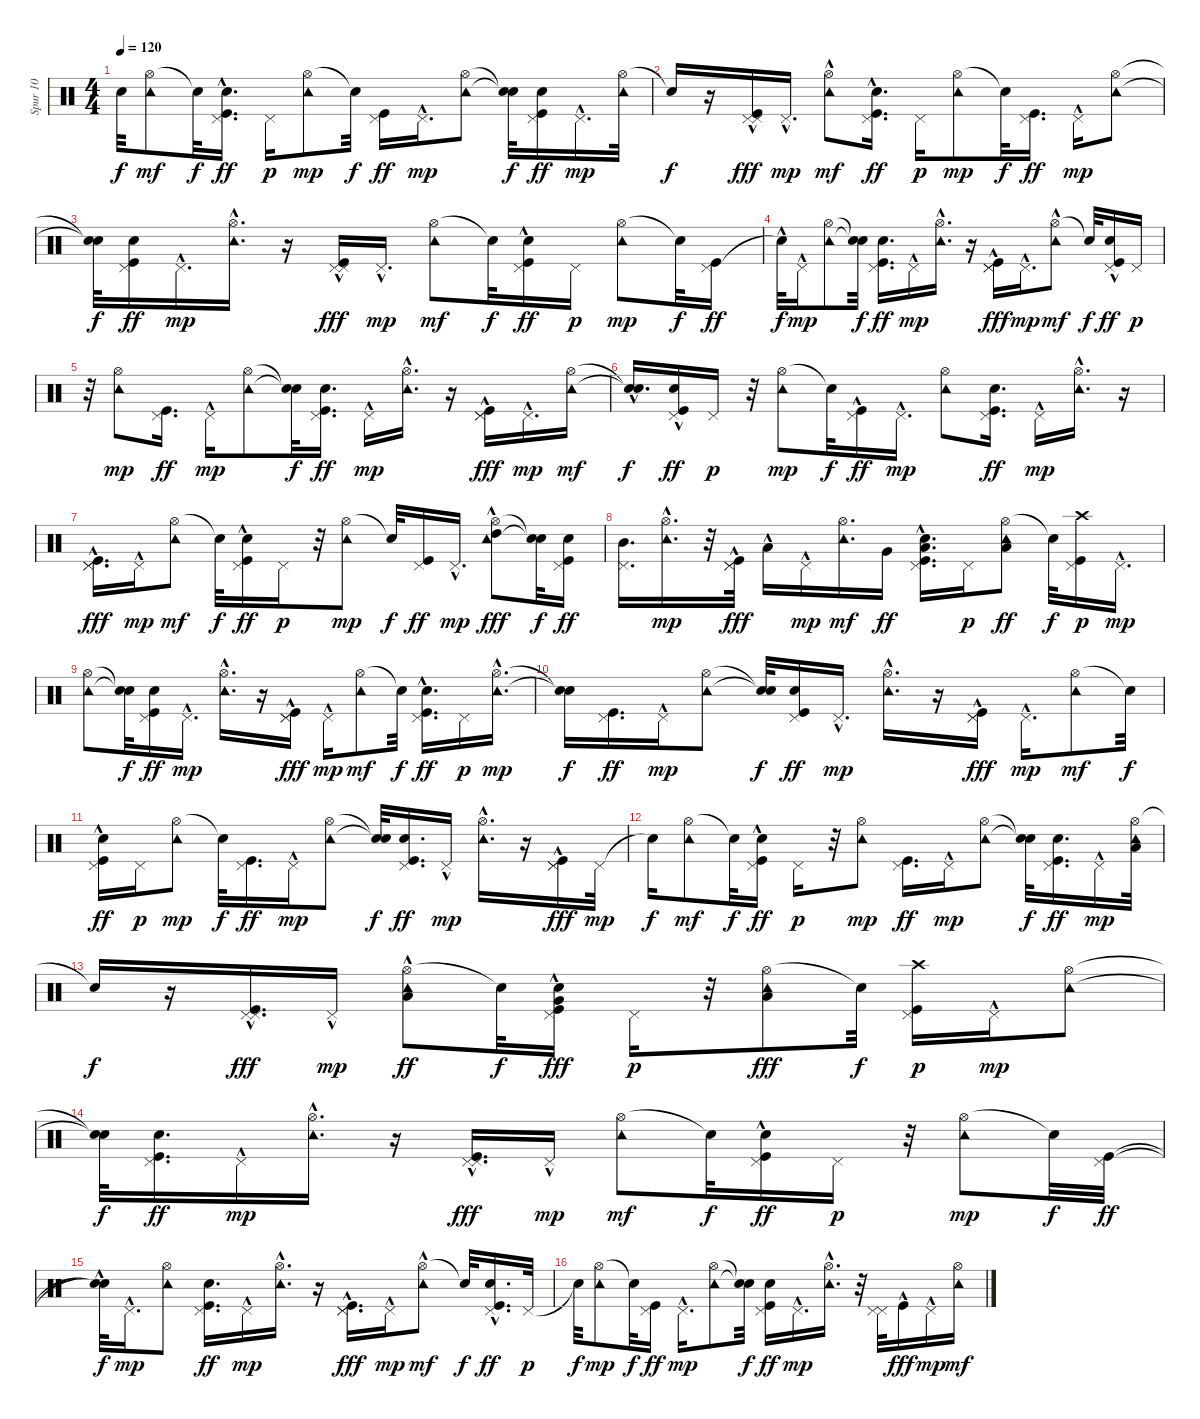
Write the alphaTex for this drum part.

\track ("Spur 10" "Spur 10") {instrument percussion}
\staff {score}
\articulation defaults
\ts (4 4)
\tempo 120
\clef neutral
\ks c "Snare (hit)"{t}.32{dy f}
("Hi-Hat (open)" "Tambourine (hit)").8{dy mf} "Snare (hit)"{t}.32{dy f} ("Pedal Hi-Hat (hit)" "Kick (hit)"{hac} "Snare (hit) 2"{hac}).16{d dy ff} "Pedal Hi-Hat (hit)".16{dy p} ("Hi-Hat (open)" "Tambourine (hit)").8{dy mp} "Snare (hit)"{t}.32{dy f} ("Pedal Hi-Hat (hit)" "Kick (hit)").16{dy ff} "Pedal Hi-Hat (hit)"{hac}.16{d dy mp} ("Hi-Hat (open)" "Tambourine (hit)").8 ("Snare (hit)"{t} "Snare (hit)"{t}).32{dy f} ("Pedal Hi-Hat (hit)" "Kick (hit)" "Snare (hit) 2").16{dy ff} "Pedal Hi-Hat (hit)"{hac}.16{d dy mp} ("Hi-Hat (open)" "Tambourine (hit)").32 |
"Snare (hit)"{t}.16{dy f} r.16 ("Pedal Hi-Hat (hit)" "Pedal Hi-Hat (hit)" "Kick (hit)"{hac}).16{dy fff} "Pedal Hi-Hat (hit)"{hac}.16{d dy mp} ("Hi-Hat (open)" "Tambourine (hit)"{hac}).8{dy mf} ("Pedal Hi-Hat (hit)" "Kick (hit)" "Snare (hit) 2"{hac}).16{d dy ff} "Pedal Hi-Hat (hit)".16{dy p} ("Hi-Hat (open)" "Tambourine (hit)").8{dy mp} "Snare (hit)"{t}.32{dy f} ("Pedal Hi-Hat (hit)" "Kick (hit)").16{d dy ff} "Pedal Hi-Hat (hit)"{hac}.16{dy mp} ("Hi-Hat (open)" "Tambourine (hit)").8 |
("Snare (hit)"{t} "Snare (hit)"{t}).32{dy f} ("Pedal Hi-Hat (hit)" "Kick (hit)" "Snare (hit) 2").16{dy ff} "Pedal Hi-Hat (hit)"{hac}.16{d dy mp} ("Hi-Hat (open)" "Tambourine (hit)"{hac}).16{d} r.16 ("Pedal Hi-Hat (hit)" "Pedal Hi-Hat (hit)" "Kick (hit)"{hac}).16{dy fff} "Pedal Hi-Hat (hit)"{hac}.16{d dy mp} ("Hi-Hat (open)" "Tambourine (hit)").8{dy mf} "Snare (hit)"{t}.32{dy f} ("Pedal Hi-Hat (hit)" "Kick (hit)"{hac} "Snare (hit) 2"{hac}).16{dy ff} "Pedal Hi-Hat (hit)".16{dy p} ("Hi-Hat (open)" "Tambourine (hit)").8{dy mp} "Snare (hit)"{t}.32{dy f} ("Pedal Hi-Hat (hit)" "Kick (hit)").16{dy ff} |
"Snare (hit)"{hac t}.32{dy f} "Pedal Hi-Hat (hit)"{hac}.16{dy mp} ("Hi-Hat (open)" "Tambourine (hit)").8 ("Snare (hit)"{t} "Snare (hit)"{t}).32{dy f} ("Pedal Hi-Hat (hit)" "Kick (hit)" "Snare (hit) 2").16{d dy ff} "Pedal Hi-Hat (hit)"{hac}.16{dy mp} ("Hi-Hat (open)" "Tambourine (hit)"{hac}).16{d} r.16 ("Pedal Hi-Hat (hit)" "Pedal Hi-Hat (hit)" "Kick (hit)"{hac}).16{dy fff} "Pedal Hi-Hat (hit)"{hac}.16{d dy mp} ("Hi-Hat (open)" "Tambourine (hit)"{hac}).8{dy mf} "Snare (hit)"{t}.32{dy f} ("Pedal Hi-Hat (hit)" "Kick (hit)"{hac} "Snare (hit) 2"{hac}).16{dy ff} "Pedal Hi-Hat (hit)".16{dy p} |
r.32 ("Hi-Hat (open)" "Tambourine (hit)").8{dy mp} ("Pedal Hi-Hat (hit)" "Kick (hit)").16{d dy ff} "Pedal Hi-Hat (hit)"{hac}.16{dy mp} ("Hi-Hat (open)" "Tambourine (hit)").8 ("Snare (hit)"{t} "Snare (hit)"{t}).32{dy f} ("Pedal Hi-Hat (hit)" "Kick (hit)" "Snare (hit) 2").16{d dy ff} "Pedal Hi-Hat (hit)"{hac}.16{dy mp} ("Hi-Hat (open)" "Tambourine (hit)"{hac}).16{d} r.16 ("Pedal Hi-Hat (hit)" "Pedal Hi-Hat (hit)" "Kick (hit)"{hac}).16{dy fff} "Pedal Hi-Hat (hit)"{hac}.16{d dy mp} ("Hi-Hat (open)" "Tambourine (hit)").16{dy mf} |
("Snare (hit)"{hac t} "Snare (hit)"{t}).16{d dy f} ("Pedal Hi-Hat (hit)" "Kick (hit)"{hac} "Snare (hit) 2"{hac}).16{dy ff} "Pedal Hi-Hat (hit)".16{dy p} r.32 ("Hi-Hat (open)" "Tambourine (hit)").8{dy mp} "Snare (hit)"{t}.32{dy f} ("Pedal Hi-Hat (hit)" "Kick (hit)"{hac}).16{dy ff} "Pedal Hi-Hat (hit)"{hac}.16{d dy mp} ("Hi-Hat (open)" "Tambourine (hit)").8 ("Pedal Hi-Hat (hit)" "Kick (hit)" "Snare (hit) 2").16{d dy ff} "Pedal Hi-Hat (hit)"{hac}.16{dy mp} ("Hi-Hat (open)" "Tambourine (hit)"{hac}).16{d} r.16 |
("Pedal Hi-Hat (hit)" "Pedal Hi-Hat (hit)" "Kick (hit)"{hac}).16{d dy fff} "Pedal Hi-Hat (hit)"{hac}.16{dy mp} ("Hi-Hat (open)" "Tambourine (hit)").8{dy mf} "Snare (hit)"{t}.32{dy f} ("Pedal Hi-Hat (hit)" "Kick (hit)"{hac} "Snare (hit) 2"{hac}).16{dy ff} "Pedal Hi-Hat (hit)".16{dy p} r.32 ("Hi-Hat (open)" "Tambourine (hit)").8{dy mp} "Snare (hit)"{t}.32{dy f} ("Pedal Hi-Hat (hit)" "Kick (hit)").16{dy ff} "Pedal Hi-Hat (hit)"{hac}.16{d dy mp} ("Hi-Hat (open)" "Tambourine (hit)" "High Tom (hit)"{hac}).8{dy fff} ("Snare (hit)"{t} "Snare (hit)"{t}).32{dy f} ("Pedal Hi-Hat (hit)" "Kick (hit)" "Snare (hit) 2").16{dy ff} |
("Pedal Hi-Hat (hit)" "Mid Tom (hit)").16{d} ("Hi-Hat (open)" "Tambourine (hit)"{hac}).16{d dy mp} r.32 ("Pedal Hi-Hat (hit)" "Pedal Hi-Hat (hit)" "Kick (hit)"{hac}).32{dy fff} "Low Tom (hit)"{hac}.16 "Pedal Hi-Hat (hit)"{hac}.16{dy mp} ("Hi-Hat (open)" "Tambourine (hit)").16{d dy mf} "Very Low Tom (hit)".16{dy ff} ("Pedal Hi-Hat (hit)" "Kick (hit)" "Snare (hit) 2"{hac} "Low Floor Tom (hit)").16{d} "Pedal Hi-Hat (hit)".16{dy p} ("Hi-Hat (open)" "Tambourine (hit)" "Low Floor Tom (hit)").8{dy ff} "Snare (hit)"{t}.32{dy f} ("Pedal Hi-Hat (hit)" "Kick (hit)" "Crash high (hit)").16{dy p} "Pedal Hi-Hat (hit)"{hac}.16{d dy mp} |
("Hi-Hat (open)" "Tambourine (hit)").8 ("Snare (hit)"{t} "Snare (hit)"{t}).32{dy f} ("Pedal Hi-Hat (hit)" "Kick (hit)" "Snare (hit) 2").16{dy ff} "Pedal Hi-Hat (hit)"{hac}.16{d dy mp} ("Hi-Hat (open)" "Tambourine (hit)"{hac}).16{d} r.16 ("Pedal Hi-Hat (hit)" "Pedal Hi-Hat (hit)" "Kick (hit)"{hac}).16{dy fff} "Pedal Hi-Hat (hit)"{hac}.16{dy mp} ("Hi-Hat (open)" "Tambourine (hit)").8{dy mf} "Snare (hit)"{t}.32{dy f} ("Pedal Hi-Hat (hit)" "Kick (hit)" "Snare (hit) 2"{hac}).16{d dy ff} "Pedal Hi-Hat (hit)".16{dy p} ("Hi-Hat (open)"{hac} "Tambourine (hit)"{hac}).16{d dy mp} |
("Snare (hit)"{t} "Snare (hit)"{t}).16{dy f} ("Pedal Hi-Hat (hit)" "Kick (hit)").16{d dy ff} "Pedal Hi-Hat (hit)"{hac}.16{dy mp} ("Hi-Hat (open)" "Tambourine (hit)").8 ("Snare (hit)"{t} "Snare (hit)"{t}).32{dy f} ("Pedal Hi-Hat (hit)" "Kick (hit)" "Snare (hit) 2").16{dy ff} "Pedal Hi-Hat (hit)"{hac}.16{d dy mp} ("Hi-Hat (open)" "Tambourine (hit)"{hac}).16{d} r.16 ("Pedal Hi-Hat (hit)" "Pedal Hi-Hat (hit)" "Kick (hit)"{hac}).16{dy fff} "Pedal Hi-Hat (hit)"{hac}.16{d dy mp} ("Hi-Hat (open)" "Tambourine (hit)").8{dy mf} "Snare (hit)"{t}.32{dy f} |
("Pedal Hi-Hat (hit)" "Kick (hit)"{hac} "Snare (hit) 2"{hac}).16{dy ff} "Pedal Hi-Hat (hit)".16{dy p} ("Hi-Hat (open)" "Tambourine (hit)").8{dy mp} "Snare (hit)"{t}.32{dy f} ("Pedal Hi-Hat (hit)" "Kick (hit)").16{d dy ff} "Pedal Hi-Hat (hit)"{hac}.16{dy mp} ("Hi-Hat (open)" "Tambourine (hit)").8 ("Snare (hit)"{t} "Snare (hit)"{t}).32{dy f} ("Pedal Hi-Hat (hit)" "Kick (hit)" "Snare (hit) 2").16{d dy ff} "Pedal Hi-Hat (hit)"{hac}.16{dy mp} ("Hi-Hat (open)" "Tambourine (hit)"{hac}).16{d} r.16 ("Pedal Hi-Hat (hit)" "Pedal Hi-Hat (hit)" "Kick (hit)"{hac}).16{dy fff} "Pedal Hi-Hat (hit)".32{dy mp} |
"Snare (hit)"{t}.16{dy f} ("Hi-Hat (open)" "Tambourine (hit)").8{dy mf} "Snare (hit)"{t}.32{dy f} ("Pedal Hi-Hat (hit)" "Kick (hit)"{hac} "Snare (hit) 2"{hac}).16{dy ff} "Pedal Hi-Hat (hit)".16{dy p} r.32 ("Hi-Hat (open)" "Tambourine (hit)").8{dy mp} ("Pedal Hi-Hat (hit)" "Kick (hit)").16{d dy ff} "Pedal Hi-Hat (hit)"{hac}.16{dy mp} ("Hi-Hat (open)" "Tambourine (hit)").8 ("Snare (hit)"{t} "Snare (hit)"{t}).32{dy f} ("Pedal Hi-Hat (hit)" "Kick (hit)" "Snare (hit) 2").16{d dy ff} "Pedal Hi-Hat (hit)"{hac}.16{dy mp} ("Hi-Hat (open)" "Tambourine (hit)" "Low Tom (hit)").32 |
"Snare (hit)"{t}.16{dy f} r.16 ("Pedal Hi-Hat (hit)" "Pedal Hi-Hat (hit)" "Kick (hit)"{hac}).16{d dy fff} "Pedal Hi-Hat (hit)"{hac}.16{dy mp} ("Hi-Hat (open)" "Tambourine (hit)"{hac} "Low Tom (hit)").8{dy ff} "Snare (hit)"{t}.32{dy f} ("Pedal Hi-Hat (hit)" "Kick (hit)"{hac} "Snare (hit) 2"{hac} "Very Low Tom (hit)").16{dy fff} "Pedal Hi-Hat (hit)".16{dy p} r.32 ("Hi-Hat (open)" "Tambourine (hit)" "Low Floor Tom (hit)").8{dy fff} "Snare (hit)"{t}.32{dy f} ("Pedal Hi-Hat (hit)" "Kick (hit)" "Crash high (hit)").16{dy p} "Pedal Hi-Hat (hit)"{hac}.16{dy mp} ("Hi-Hat (open)" "Tambourine (hit)").8 |
("Snare (hit)"{t} "Snare (hit)"{t}).32{dy f} ("Pedal Hi-Hat (hit)" "Kick (hit)" "Snare (hit) 2").16{d dy ff} "Pedal Hi-Hat (hit)"{hac}.16{dy mp} ("Hi-Hat (open)" "Tambourine (hit)"{hac}).16{d} r.16 ("Pedal Hi-Hat (hit)" "Pedal Hi-Hat (hit)" "Kick (hit)"{hac}).16{d dy fff} "Pedal Hi-Hat (hit)"{hac}.16{dy mp} ("Hi-Hat (open)" "Tambourine (hit)").8{dy mf} "Snare (hit)"{t}.32{dy f} ("Pedal Hi-Hat (hit)" "Kick (hit)"{hac} "Snare (hit) 2"{hac}).16{dy ff} "Pedal Hi-Hat (hit)".16{dy p} r.32 ("Hi-Hat (open)" "Tambourine (hit)").8{dy mp} "Snare (hit)"{t}.32{dy f} ("Pedal Hi-Hat (hit)" "Kick (hit)").32{dy ff} |
("Snare (hit)"{t} "Snare (hit)"{hac t}).32{dy f} "Pedal Hi-Hat (hit)"{hac}.16{d dy mp} ("Hi-Hat (open)" "Tambourine (hit)").8 ("Pedal Hi-Hat (hit)" "Kick (hit)" "Snare (hit) 2").16{d dy ff} "Pedal Hi-Hat (hit)"{hac}.16{dy mp} ("Hi-Hat (open)" "Tambourine (hit)"{hac}).16{d} r.16 ("Pedal Hi-Hat (hit)" "Pedal Hi-Hat (hit)" "Kick (hit)"{hac}).16{d dy fff} "Pedal Hi-Hat (hit)"{hac}.16{dy mp} ("Hi-Hat (open)" "Tambourine (hit)"{hac}).8{dy mf} "Snare (hit)"{t}.32{dy f} ("Pedal Hi-Hat (hit)" "Kick (hit)" "Snare (hit) 2"{hac}).16{d dy ff} "Pedal Hi-Hat (hit)".32{dy p} |
"Snare (hit)"{t}.32{dy f} ("Hi-Hat (open)" "Tambourine (hit)").8{dy mp} "Snare (hit)"{t}.32{dy f} ("Pedal Hi-Hat (hit)" "Kick (hit)").16{dy ff} "Pedal Hi-Hat (hit)"{hac}.16{d dy mp} ("Hi-Hat (open)" "Tambourine (hit)").8 ("Snare (hit)"{t} "Snare (hit)"{t}).32{dy f} ("Pedal Hi-Hat (hit)" "Kick (hit)" "Snare (hit) 2").16{dy ff} "Pedal Hi-Hat (hit)"{hac}.16{d dy mp} ("Hi-Hat (open)" "Tambourine (hit)"{hac}).16{d} r.32 ("Pedal Hi-Hat (hit)" "Pedal Hi-Hat (hit)").32 "Kick (hit)"{hac}.16{dy fff} "Pedal Hi-Hat (hit)"{hac}.16{dy mp} ("Hi-Hat (open)" "Tambourine (hit)").16{dy mf}
